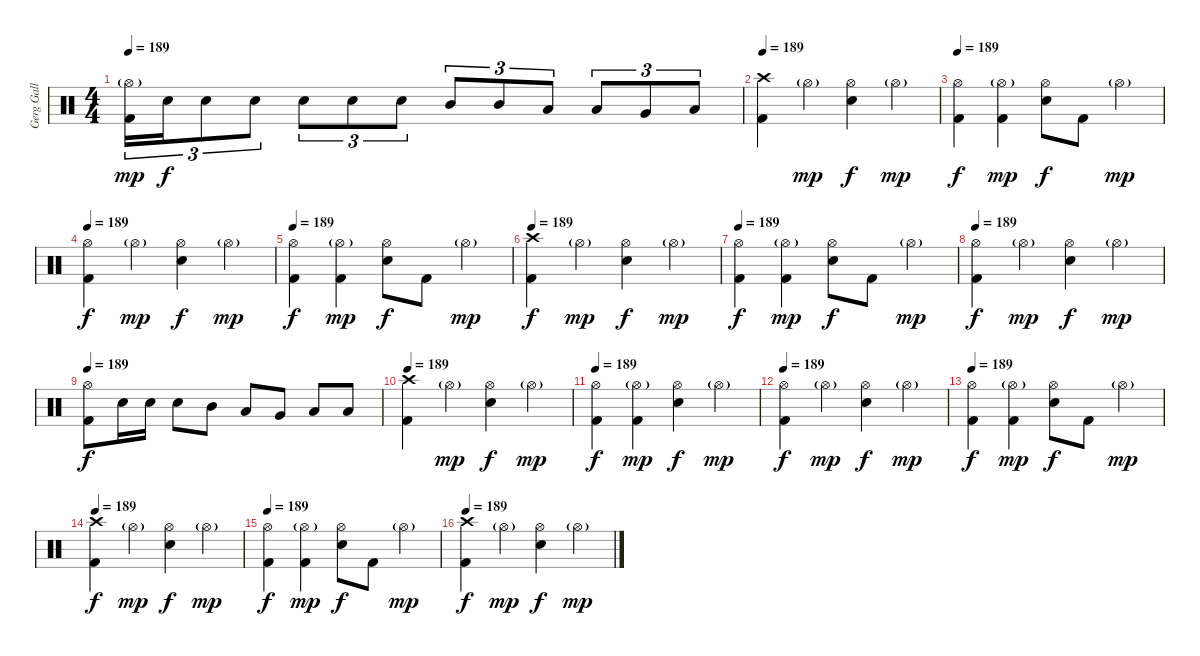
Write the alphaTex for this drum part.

\track ("Gerg Gall (Drums)" "Gerg Gall ") {instrument percussion}
\staff {score}
\articulation defaults
\ts (4 4)
\tempo 189
\clef neutral
\ks c
("Hi-Hat (open)"{g} "Kick (hit) 2").16{tu (3 2) dy mp} "Snare (hit) 2".16{tu (3 2) dy f} "Snare (hit) 2".8{tu (3 2)} "Snare (hit) 2".8{tu (3 2)} "Snare (hit) 2".8{tu (3 2)} "Snare (hit) 2".8{tu (3 2)} "Snare (hit) 2".8{tu (3 2)} "Mid Tom (hit)".8{tu (3 2)} "Mid Tom (hit)".8{tu (3 2)} "Low Tom (hit)".8{tu (3 2)} "Low Tom (hit)".8{tu (3 2)} "Very Low Tom (hit)".8{tu (3 2)} "Low Floor Tom (hit)".8{tu (3 2)} |
\tempo 189
("Crash high (hit)" "Kick (hit) 2").4 "Hi-Hat (open)"{g}.4{dy mp} ("Hi-Hat (open)" "Snare (hit) 2").4{dy f} "Hi-Hat (open)"{g}.4{dy mp} |
\tempo 189
("Hi-Hat (open)" "Kick (hit) 2").4{dy f} ("Hi-Hat (open)"{g} "Kick (hit) 2").4{dy mp} ("Hi-Hat (open)" "Snare (hit) 2").8{dy f} "Kick (hit) 2".8 "Hi-Hat (open)"{g}.4{dy mp} |
\tempo 189
("Hi-Hat (open)" "Kick (hit) 2").4{dy f} "Hi-Hat (open)"{g}.4{dy mp} ("Hi-Hat (open)" "Snare (hit) 2").4{dy f} "Hi-Hat (open)"{g}.4{dy mp} |
\tempo 189
("Hi-Hat (open)" "Kick (hit) 2").4{dy f} ("Hi-Hat (open)"{g} "Kick (hit) 2").4{dy mp} ("Hi-Hat (open)" "Snare (hit) 2").8{dy f} "Kick (hit) 2".8 "Hi-Hat (open)"{g}.4{dy mp} |
\tempo 189
("Crash high (hit)" "Kick (hit) 2").4{dy f} "Hi-Hat (open)"{g}.4{dy mp} ("Hi-Hat (open)" "Snare (hit) 2").4{dy f} "Hi-Hat (open)"{g}.4{dy mp} |
\tempo 189
("Hi-Hat (open)" "Kick (hit) 2").4{dy f} ("Hi-Hat (open)"{g} "Kick (hit) 2").4{dy mp} ("Hi-Hat (open)" "Snare (hit) 2").8{dy f} "Kick (hit) 2".8 "Hi-Hat (open)"{g}.4{dy mp} |
\tempo 189
("Hi-Hat (open)" "Kick (hit) 2").4{dy f} "Hi-Hat (open)"{g}.4{dy mp} ("Hi-Hat (open)" "Snare (hit) 2").4{dy f} "Hi-Hat (open)"{g}.4{dy mp} |
\tempo 189
("Hi-Hat (open)" "Kick (hit) 2").8{dy f} "Snare (hit) 2".16 "Snare (hit) 2".16 "Snare (hit) 2".8 "Mid Tom (hit)".8 "Low Tom (hit)".8 "Very Low Tom (hit)".8 "Low Floor Tom (hit)".8 "Low Floor Tom (hit)".8 |
\tempo 189
("Crash high (hit)" "Kick (hit) 2").4 "Hi-Hat (open)"{g}.4{dy mp} ("Hi-Hat (open)" "Snare (hit) 2").4{dy f} "Hi-Hat (open)"{g}.4{dy mp} |
\tempo 189
("Hi-Hat (open)" "Kick (hit) 2").4{dy f} ("Hi-Hat (open)"{g} "Kick (hit) 2").4{dy mp} ("Hi-Hat (open)" "Snare (hit) 2").4{dy f} "Hi-Hat (open)"{g}.4{dy mp} |
\tempo 189
("Hi-Hat (open)" "Kick (hit) 2").4{dy f} "Hi-Hat (open)"{g}.4{dy mp} ("Hi-Hat (open)" "Snare (hit) 2").4{dy f} "Hi-Hat (open)"{g}.4{dy mp} |
\tempo 189
("Hi-Hat (open)" "Kick (hit) 2").4{dy f} ("Hi-Hat (open)"{g} "Kick (hit) 2").4{dy mp} ("Hi-Hat (open)" "Snare (hit) 2").8{dy f} "Kick (hit) 2".8 "Hi-Hat (open)"{g}.4{dy mp} |
\tempo 189
("Crash high (hit)" "Kick (hit) 2").4{dy f} "Hi-Hat (open)"{g}.4{dy mp} ("Hi-Hat (open)" "Snare (hit) 2").4{dy f} "Hi-Hat (open)"{g}.4{dy mp} |
\tempo 189
("Hi-Hat (open)" "Kick (hit) 2").4{dy f} ("Hi-Hat (open)"{g} "Kick (hit) 2").4{dy mp} ("Hi-Hat (open)" "Snare (hit) 2").8{dy f} "Kick (hit) 2".8 "Hi-Hat (open)"{g}.4{dy mp} |
\tempo 189
("Crash high (hit)" "Kick (hit) 2").4{dy f} "Hi-Hat (open)"{g}.4{dy mp} ("Hi-Hat (open)" "Snare (hit) 2").4{dy f} "Hi-Hat (open)"{g}.4{dy mp}
